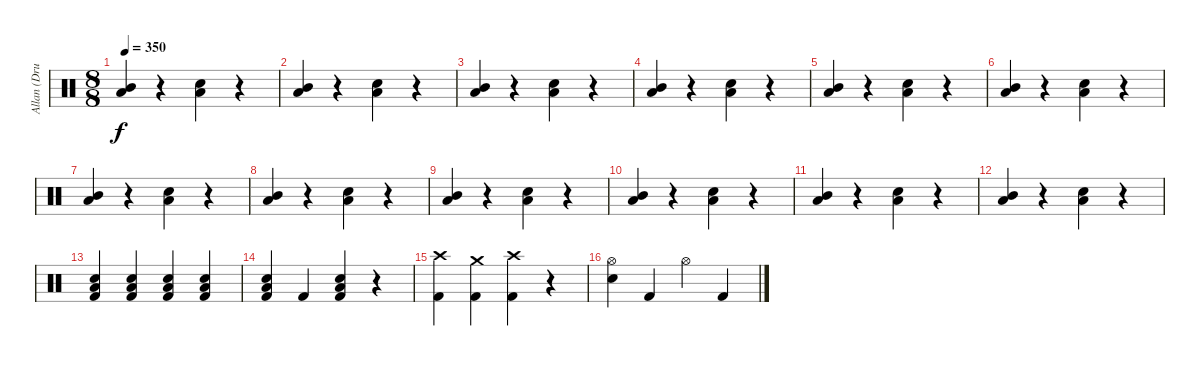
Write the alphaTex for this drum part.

\track ("Allan (Drums)" "Allan (Dru") {solo instrument percussion}
\staff {score}
\articulation defaults
\ts (8 8)
\tempo 350
\clef neutral
\ks c
("Low Tom (hit)" "Mid Tom (hit)").4{dy f} r.4 ("Low Tom (hit)" "Snare (hit) 2").4 r.4 |
("Low Tom (hit)" "Mid Tom (hit)").4 r.4 ("Low Tom (hit)" "Snare (hit) 2").4 r.4 |
("Low Tom (hit)" "Mid Tom (hit)").4 r.4 ("Low Tom (hit)" "Snare (hit) 2").4 r.4 |
("Low Tom (hit)" "Mid Tom (hit)").4 r.4 ("Low Tom (hit)" "Snare (hit) 2").4 r.4 |
("Low Tom (hit)" "Mid Tom (hit)").4 r.4 ("Low Tom (hit)" "Snare (hit) 2").4 r.4 |
("Low Tom (hit)" "Mid Tom (hit)").4 r.4 ("Low Tom (hit)" "Snare (hit) 2").4 r.4 |
("Low Tom (hit)" "Mid Tom (hit)").4 r.4 ("Low Tom (hit)" "Snare (hit) 2").4 r.4 |
("Low Tom (hit)" "Mid Tom (hit)").4 r.4 ("Low Tom (hit)" "Snare (hit) 2").4 r.4 |
("Low Tom (hit)" "Mid Tom (hit)").4 r.4 ("Low Tom (hit)" "Snare (hit) 2").4 r.4 |
("Low Tom (hit)" "Mid Tom (hit)").4 r.4 ("Low Tom (hit)" "Snare (hit) 2").4 r.4 |
("Low Tom (hit)" "Mid Tom (hit)").4 r.4 ("Low Tom (hit)" "Snare (hit) 2").4 r.4 |
("Low Tom (hit)" "Mid Tom (hit)").4 r.4 ("Low Tom (hit)" "Snare (hit) 2").4 r.4 |
("Kick (hit) 2" "Low Tom (hit)" "Snare (hit) 2").4 ("Kick (hit) 2" "Low Tom (hit)" "Snare (hit) 2").4 ("Kick (hit) 2" "Low Tom (hit)" "Snare (hit) 2").4 ("Kick (hit) 2" "Low Tom (hit)" "Snare (hit) 2").4 |
("Kick (hit) 2" "Low Tom (hit)" "Snare (hit) 2").4 "Kick (hit) 2".4 ("Kick (hit) 2" "Low Tom (hit)" "Snare (hit) 2").4 r.4 |
("Crash high (hit)" "Kick (hit) 2").4 ("Crash medium (hit)" "Kick (hit) 2").4 ("Crash high (hit)" "Kick (hit) 2").4 r.4 |
("Hi-Hat (open)" "Snare (hit) 2").4 "Kick (hit) 2".4 "Hi-Hat (open)".4 "Kick (hit) 2".4
